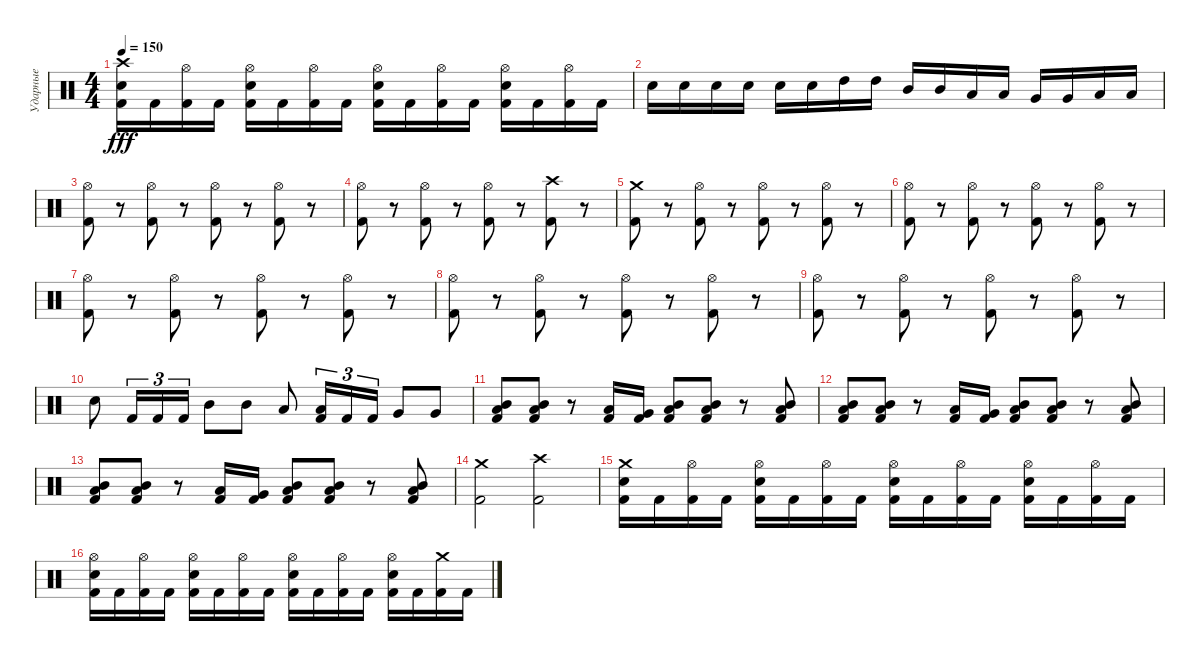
\track ("Ударные" "Ударные") {instrument percussion}
\staff {score}
\articulation defaults
\ts (4 4)
\tempo 150
\clef neutral
\ks c
("Crash high (hit)" "Electric Snare (hit)" "Kick (hit) 2").16{dy fff} "Kick (hit) 2".16 ("Hi-Hat (open)" "Kick (hit) 2").16 "Kick (hit) 2".16 ("Hi-Hat (open)" "Electric Snare (hit)" "Kick (hit) 2").16 "Kick (hit) 2".16 ("Hi-Hat (open)" "Kick (hit) 2").16 "Kick (hit) 2".16 ("Hi-Hat (open)" "Electric Snare (hit)" "Kick (hit) 2").16 "Kick (hit) 2".16 ("Hi-Hat (open)" "Kick (hit) 2").16 "Kick (hit) 2".16 ("Hi-Hat (open)" "Electric Snare (hit)" "Kick (hit) 2").16 "Kick (hit) 2".16 ("Hi-Hat (open)" "Kick (hit) 2").16 "Kick (hit) 2".16 |
"Electric Snare (hit)".16 "Electric Snare (hit)".16 "Electric Snare (hit)".16 "Electric Snare (hit)".16 "Electric Snare (hit)".16 "Electric Snare (hit)".16 "High Tom (hit)".16 "High Tom (hit)".16 "Mid Tom (hit)".16 "Mid Tom (hit)".16 "Low Tom (hit)".16 "Low Tom (hit)".16 "Very Low Tom (hit)".16 "Very Low Tom (hit)".16 "Low Floor Tom (hit)".16 "Low Floor Tom (hit)".16 |
("Hi-Hat (open)" "Kick (hit) 2").8 r.8 ("Hi-Hat (open)" "Kick (hit) 2").8 r.8 ("Hi-Hat (open)" "Kick (hit) 2").8 r.8 ("Hi-Hat (open)" "Kick (hit) 2").8 r.8 |
("Hi-Hat (open)" "Kick (hit) 2").8 r.8 ("Hi-Hat (open)" "Kick (hit) 2").8 r.8 ("Hi-Hat (open)" "Kick (hit) 2").8 r.8 ("Crash high (hit)" "Kick (hit) 2").8 r.8 |
("Crash medium (hit)" "Kick (hit) 2").8 r.8 ("Hi-Hat (open)" "Kick (hit) 2").8 r.8 ("Hi-Hat (open)" "Kick (hit) 2").8 r.8 ("Hi-Hat (open)" "Kick (hit) 2").8 r.8 |
("Hi-Hat (open)" "Kick (hit) 2").8 r.8 ("Hi-Hat (open)" "Kick (hit) 2").8 r.8 ("Hi-Hat (open)" "Kick (hit) 2").8 r.8 ("Hi-Hat (open)" "Kick (hit) 2").8 r.8 |
("Hi-Hat (open)" "Kick (hit) 2").8 r.8 ("Hi-Hat (open)" "Kick (hit) 2").8 r.8 ("Hi-Hat (open)" "Kick (hit) 2").8 r.8 ("Hi-Hat (open)" "Kick (hit) 2").8 r.8 |
("Hi-Hat (open)" "Kick (hit) 2").8 r.8 ("Hi-Hat (open)" "Kick (hit) 2").8 r.8 ("Hi-Hat (open)" "Kick (hit) 2").8 r.8 ("Hi-Hat (open)" "Kick (hit) 2").8 r.8 |
("Hi-Hat (open)" "Kick (hit) 2").8 r.8 ("Hi-Hat (open)" "Kick (hit) 2").8 r.8 ("Hi-Hat (open)" "Kick (hit) 2").8 r.8 ("Hi-Hat (open)" "Kick (hit) 2").8 r.8 |
"Electric Snare (hit)".8 "Kick (hit) 2".16{tu (3 2)} "Kick (hit) 2".16{tu (3 2)} "Kick (hit) 2".16{tu (3 2)} "Mid Tom (hit)".8 "Mid Tom (hit)".8 "Low Tom (hit)".8 ("Kick (hit) 2" "Low Tom (hit)").16{tu (3 2)} "Kick (hit) 2".16{tu (3 2)} "Kick (hit) 2".16{tu (3 2)} "Very Low Tom (hit)".8 "Very Low Tom (hit)".8 |
("Mid Tom (hit)" "Low Tom (hit)" "Kick (hit) 2").8 ("Mid Tom (hit)" "Low Tom (hit)" "Kick (hit) 2").8 r.8 ("Low Tom (hit)" "Kick (hit) 2").16 ("Very Low Tom (hit)" "Kick (hit) 2").16 ("Mid Tom (hit)" "Low Tom (hit)" "Kick (hit) 2").8 ("Mid Tom (hit)" "Low Tom (hit)" "Kick (hit) 2").8 r.8 ("Mid Tom (hit)" "Low Tom (hit)" "Kick (hit) 2").8 |
("Mid Tom (hit)" "Low Tom (hit)" "Kick (hit) 2").8 ("Mid Tom (hit)" "Low Tom (hit)" "Kick (hit) 2").8 r.8 ("Low Tom (hit)" "Kick (hit) 2").16 ("Very Low Tom (hit)" "Kick (hit) 2").16 ("Mid Tom (hit)" "Low Tom (hit)" "Kick (hit) 2").8 ("Mid Tom (hit)" "Low Tom (hit)" "Kick (hit) 2").8 r.8 ("Mid Tom (hit)" "Low Tom (hit)" "Kick (hit) 2").8 |
("Mid Tom (hit)" "Low Tom (hit)" "Kick (hit) 2").8 ("Mid Tom (hit)" "Low Tom (hit)" "Kick (hit) 2").8 r.8 ("Low Tom (hit)" "Kick (hit) 2").16 ("Very Low Tom (hit)" "Kick (hit) 2").16 ("Mid Tom (hit)" "Low Tom (hit)" "Kick (hit) 2").8 ("Mid Tom (hit)" "Low Tom (hit)" "Kick (hit) 2").8 r.8 ("Mid Tom (hit)" "Low Tom (hit)" "Kick (hit) 2").8 |
("Crash medium (hit)" "Kick (hit) 2").2 ("Crash high (hit)" "Kick (hit) 2").2 |
("Crash medium (hit)" "Electric Snare (hit)" "Kick (hit) 2").16 "Kick (hit) 2".16 ("Hi-Hat (open)" "Kick (hit) 2").16 "Kick (hit) 2".16 ("Hi-Hat (open)" "Electric Snare (hit)" "Kick (hit) 2").16 "Kick (hit) 2".16 ("Hi-Hat (open)" "Kick (hit) 2").16 "Kick (hit) 2".16 ("Hi-Hat (open)" "Electric Snare (hit)" "Kick (hit) 2").16 "Kick (hit) 2".16 ("Hi-Hat (open)" "Kick (hit) 2").16 "Kick (hit) 2".16 ("Hi-Hat (open)" "Electric Snare (hit)" "Kick (hit) 2").16 "Kick (hit) 2".16 ("Hi-Hat (open)" "Kick (hit) 2").16 "Kick (hit) 2".16 |
("Hi-Hat (open)" "Electric Snare (hit)" "Kick (hit) 2").16 "Kick (hit) 2".16 ("Hi-Hat (open)" "Kick (hit) 2").16 "Kick (hit) 2".16 ("Hi-Hat (open)" "Electric Snare (hit)" "Kick (hit) 2").16 "Kick (hit) 2".16 ("Hi-Hat (open)" "Kick (hit) 2").16 "Kick (hit) 2".16 ("Hi-Hat (open)" "Electric Snare (hit)" "Kick (hit) 2").16 "Kick (hit) 2".16 ("Hi-Hat (open)" "Kick (hit) 2").16 "Kick (hit) 2".16 ("Hi-Hat (open)" "Electric Snare (hit)" "Kick (hit) 2").16 "Kick (hit) 2".16 ("Crash medium (hit)" "Kick (hit) 2").16 "Kick (hit) 2".16
